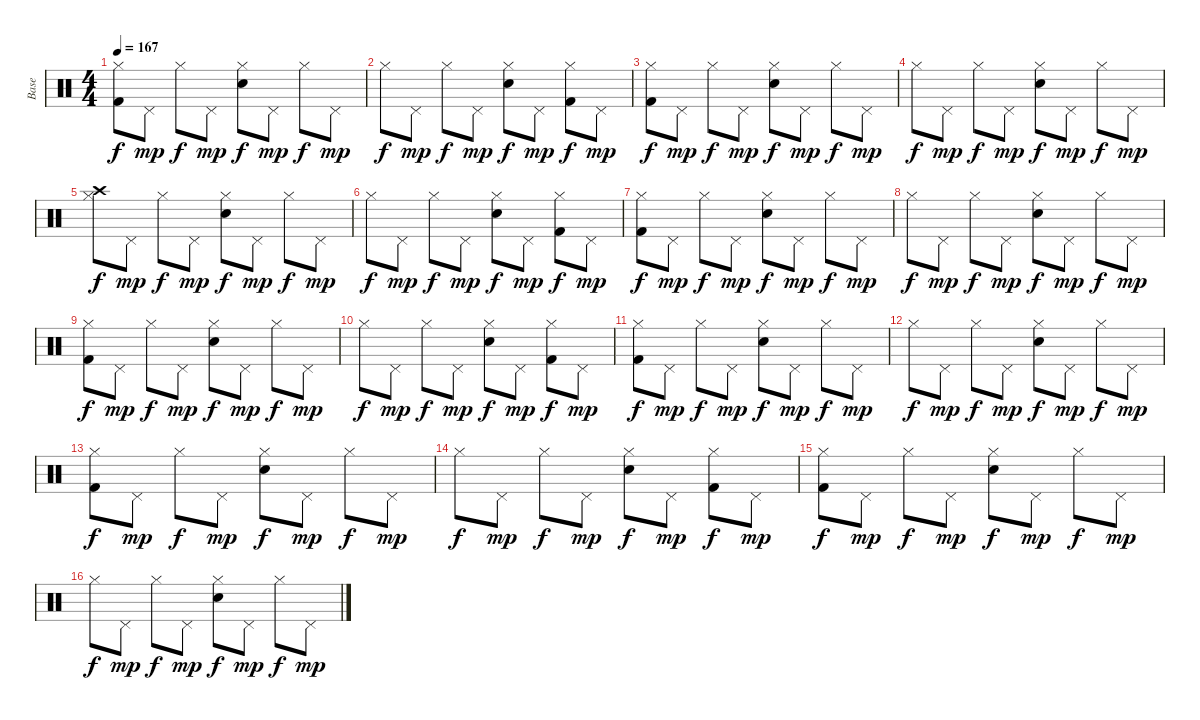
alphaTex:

\track ("Base" "Base") {instrument percussion}
\staff {score}
\articulation defaults
\ts (4 4)
\tempo 167
\clef neutral
\ks c
("Hi-Hat (closed)" "Kick (hit) 2").8{dy f} "Pedal Hi-Hat (hit)".8{dy mp} "Hi-Hat (closed)".8{dy f} "Pedal Hi-Hat (hit)".8{dy mp} ("Electric Snare (hit)" "Hi-Hat (closed)").8{dy f} "Pedal Hi-Hat (hit)".8{dy mp} "Hi-Hat (closed)".8{dy f} "Pedal Hi-Hat (hit)".8{dy mp} |
"Hi-Hat (closed)".8{dy f} "Pedal Hi-Hat (hit)".8{dy mp} "Hi-Hat (closed)".8{dy f} "Pedal Hi-Hat (hit)".8{dy mp} ("Electric Snare (hit)" "Hi-Hat (closed)").8{dy f} "Pedal Hi-Hat (hit)".8{dy mp} ("Hi-Hat (closed)" "Kick (hit) 2").8{dy f} "Pedal Hi-Hat (hit)".8{dy mp} |
("Hi-Hat (closed)" "Kick (hit) 2").8{dy f} "Pedal Hi-Hat (hit)".8{dy mp} "Hi-Hat (closed)".8{dy f} "Pedal Hi-Hat (hit)".8{dy mp} ("Electric Snare (hit)" "Hi-Hat (closed)").8{dy f} "Pedal Hi-Hat (hit)".8{dy mp} "Hi-Hat (closed)".8{dy f} "Pedal Hi-Hat (hit)".8{dy mp} |
"Hi-Hat (closed)".8{dy f} "Pedal Hi-Hat (hit)".8{dy mp} "Hi-Hat (closed)".8{dy f} "Pedal Hi-Hat (hit)".8{dy mp} ("Electric Snare (hit)" "Hi-Hat (closed)").8{dy f} "Pedal Hi-Hat (hit)".8{dy mp} "Hi-Hat (closed)".8{dy f} "Pedal Hi-Hat (hit)".8{dy mp} |
("Hi-Hat (closed)" "Crash high (hit)").8{dy f} "Pedal Hi-Hat (hit)".8{dy mp} "Hi-Hat (closed)".8{dy f} "Pedal Hi-Hat (hit)".8{dy mp} ("Electric Snare (hit)" "Hi-Hat (closed)").8{dy f} "Pedal Hi-Hat (hit)".8{dy mp} "Hi-Hat (closed)".8{dy f} "Pedal Hi-Hat (hit)".8{dy mp} |
"Hi-Hat (closed)".8{dy f} "Pedal Hi-Hat (hit)".8{dy mp} "Hi-Hat (closed)".8{dy f} "Pedal Hi-Hat (hit)".8{dy mp} ("Electric Snare (hit)" "Hi-Hat (closed)").8{dy f} "Pedal Hi-Hat (hit)".8{dy mp} ("Hi-Hat (closed)" "Kick (hit) 2").8{dy f} "Pedal Hi-Hat (hit)".8{dy mp} |
("Hi-Hat (closed)" "Kick (hit) 2").8{dy f} "Pedal Hi-Hat (hit)".8{dy mp} "Hi-Hat (closed)".8{dy f} "Pedal Hi-Hat (hit)".8{dy mp} ("Electric Snare (hit)" "Hi-Hat (closed)").8{dy f} "Pedal Hi-Hat (hit)".8{dy mp} "Hi-Hat (closed)".8{dy f} "Pedal Hi-Hat (hit)".8{dy mp} |
"Hi-Hat (closed)".8{dy f} "Pedal Hi-Hat (hit)".8{dy mp} "Hi-Hat (closed)".8{dy f} "Pedal Hi-Hat (hit)".8{dy mp} ("Electric Snare (hit)" "Hi-Hat (closed)").8{dy f} "Pedal Hi-Hat (hit)".8{dy mp} "Hi-Hat (closed)".8{dy f} "Pedal Hi-Hat (hit)".8{dy mp} |
("Hi-Hat (closed)" "Kick (hit) 2").8{dy f} "Pedal Hi-Hat (hit)".8{dy mp} "Hi-Hat (closed)".8{dy f} "Pedal Hi-Hat (hit)".8{dy mp} ("Electric Snare (hit)" "Hi-Hat (closed)").8{dy f} "Pedal Hi-Hat (hit)".8{dy mp} "Hi-Hat (closed)".8{dy f} "Pedal Hi-Hat (hit)".8{dy mp} |
"Hi-Hat (closed)".8{dy f} "Pedal Hi-Hat (hit)".8{dy mp} "Hi-Hat (closed)".8{dy f} "Pedal Hi-Hat (hit)".8{dy mp} ("Electric Snare (hit)" "Hi-Hat (closed)").8{dy f} "Pedal Hi-Hat (hit)".8{dy mp} ("Hi-Hat (closed)" "Kick (hit) 2").8{dy f} "Pedal Hi-Hat (hit)".8{dy mp} |
("Hi-Hat (closed)" "Kick (hit) 2").8{dy f} "Pedal Hi-Hat (hit)".8{dy mp} "Hi-Hat (closed)".8{dy f} "Pedal Hi-Hat (hit)".8{dy mp} ("Electric Snare (hit)" "Hi-Hat (closed)").8{dy f} "Pedal Hi-Hat (hit)".8{dy mp} "Hi-Hat (closed)".8{dy f} "Pedal Hi-Hat (hit)".8{dy mp} |
"Hi-Hat (closed)".8{dy f} "Pedal Hi-Hat (hit)".8{dy mp} "Hi-Hat (closed)".8{dy f} "Pedal Hi-Hat (hit)".8{dy mp} ("Electric Snare (hit)" "Hi-Hat (closed)").8{dy f} "Pedal Hi-Hat (hit)".8{dy mp} "Hi-Hat (closed)".8{dy f} "Pedal Hi-Hat (hit)".8{dy mp} |
("Hi-Hat (closed)" "Kick (hit) 2").8{dy f} "Pedal Hi-Hat (hit)".8{dy mp} "Hi-Hat (closed)".8{dy f} "Pedal Hi-Hat (hit)".8{dy mp} ("Electric Snare (hit)" "Hi-Hat (closed)").8{dy f} "Pedal Hi-Hat (hit)".8{dy mp} "Hi-Hat (closed)".8{dy f} "Pedal Hi-Hat (hit)".8{dy mp} |
"Hi-Hat (closed)".8{dy f} "Pedal Hi-Hat (hit)".8{dy mp} "Hi-Hat (closed)".8{dy f} "Pedal Hi-Hat (hit)".8{dy mp} ("Electric Snare (hit)" "Hi-Hat (closed)").8{dy f} "Pedal Hi-Hat (hit)".8{dy mp} ("Hi-Hat (closed)" "Kick (hit) 2").8{dy f} "Pedal Hi-Hat (hit)".8{dy mp} |
("Hi-Hat (closed)" "Kick (hit) 2").8{dy f} "Pedal Hi-Hat (hit)".8{dy mp} "Hi-Hat (closed)".8{dy f} "Pedal Hi-Hat (hit)".8{dy mp} ("Electric Snare (hit)" "Hi-Hat (closed)").8{dy f} "Pedal Hi-Hat (hit)".8{dy mp} "Hi-Hat (closed)".8{dy f} "Pedal Hi-Hat (hit)".8{dy mp} |
"Hi-Hat (closed)".8{dy f} "Pedal Hi-Hat (hit)".8{dy mp} "Hi-Hat (closed)".8{dy f} "Pedal Hi-Hat (hit)".8{dy mp} ("Electric Snare (hit)" "Hi-Hat (closed)").8{dy f} "Pedal Hi-Hat (hit)".8{dy mp} "Hi-Hat (closed)".8{dy f} "Pedal Hi-Hat (hit)".8{dy mp}
